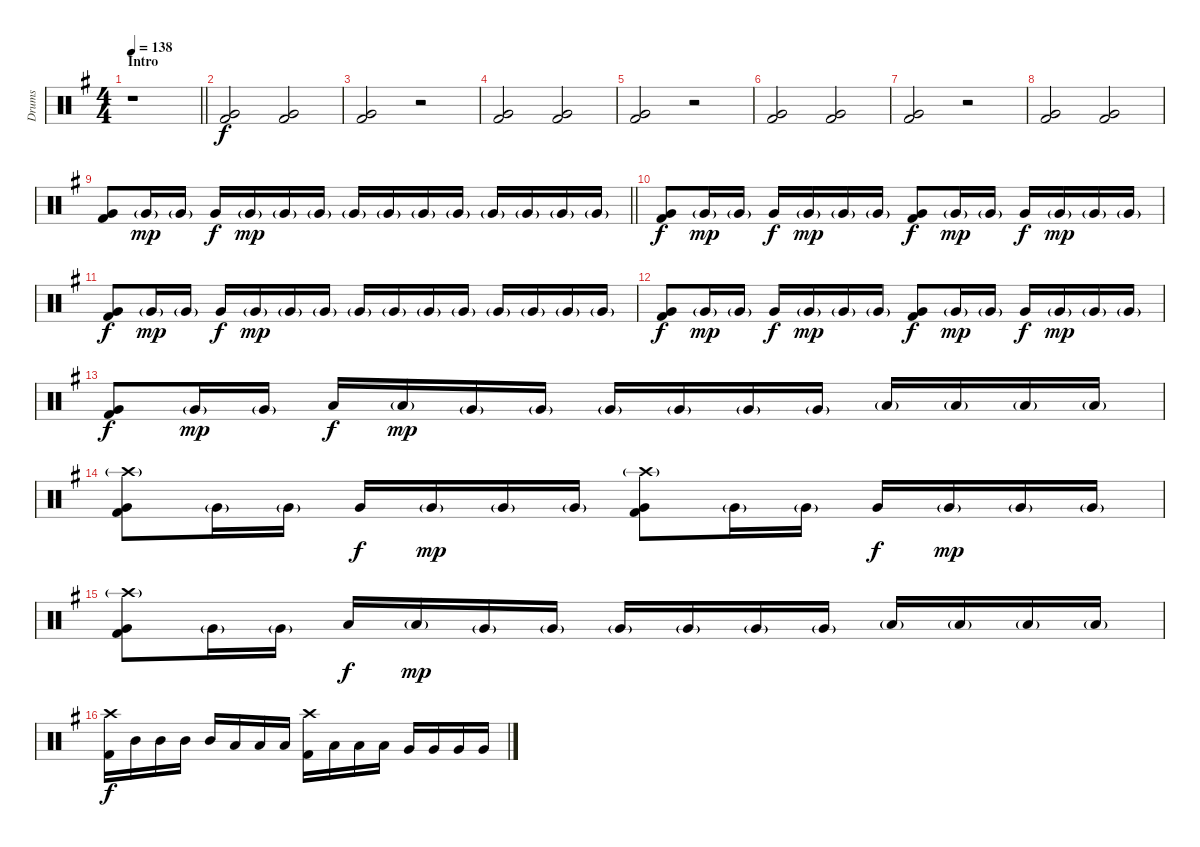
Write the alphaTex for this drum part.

\track ("Drums" "Drums") {instrument percussion}
\staff {score}
\articulation defaults
\ts (4 4)
\section ("" "Intro")
\tempo 138
\clef neutral
\barLineRight lightlight
\ks g
r.1{dy f} |
\section ("" "")
\ks eminor
("Very Low Tom (hit)" "Kick (hit) 2").2 ("Very Low Tom (hit)" "Kick (hit) 2").2 |
("Very Low Tom (hit)" "Kick (hit) 2").2 r.2 |
("Very Low Tom (hit)" "Kick (hit) 2").2 ("Very Low Tom (hit)" "Kick (hit) 2").2 |
("Very Low Tom (hit)" "Kick (hit) 2").2 r.2 |
("Very Low Tom (hit)" "Kick (hit) 2").2 ("Very Low Tom (hit)" "Kick (hit) 2").2 |
("Very Low Tom (hit)" "Kick (hit) 2").2 r.2 |
("Very Low Tom (hit)" "Kick (hit) 2").2 ("Very Low Tom (hit)" "Kick (hit) 2").2 |
\barLineRight lightlight
("Very Low Tom (hit)" "Kick (hit) 2").8 "Very Low Tom (hit)"{g}.16{dy mp} "Very Low Tom (hit)"{g}.16 "Very Low Tom (hit)".16{dy f} "Very Low Tom (hit)"{g}.16{dy mp} "Very Low Tom (hit)"{g}.16 "Very Low Tom (hit)"{g}.16 "Very Low Tom (hit)"{g}.16 "Very Low Tom (hit)"{g}.16 "Very Low Tom (hit)"{g}.16 "Very Low Tom (hit)"{g}.16 "Very Low Tom (hit)"{g}.16 "Very Low Tom (hit)"{g}.16 "Very Low Tom (hit)"{g}.16 "Very Low Tom (hit)"{g}.16 |
\section ("" "")
("Very Low Tom (hit)" "Kick (hit) 2").8{dy f} "Very Low Tom (hit)"{g}.16{dy mp} "Very Low Tom (hit)"{g}.16 "Very Low Tom (hit)".16{dy f} "Very Low Tom (hit)"{g}.16{dy mp} "Very Low Tom (hit)"{g}.16 "Very Low Tom (hit)"{g}.16 ("Very Low Tom (hit)" "Kick (hit) 2").8{dy f} "Very Low Tom (hit)"{g}.16{dy mp} "Very Low Tom (hit)"{g}.16 "Very Low Tom (hit)".16{dy f} "Very Low Tom (hit)"{g}.16{dy mp} "Very Low Tom (hit)"{g}.16 "Very Low Tom (hit)"{g}.16 |
("Very Low Tom (hit)" "Kick (hit) 2").8{dy f} "Very Low Tom (hit)"{g}.16{dy mp} "Very Low Tom (hit)"{g}.16 "Very Low Tom (hit)".16{dy f} "Very Low Tom (hit)"{g}.16{dy mp} "Very Low Tom (hit)"{g}.16 "Very Low Tom (hit)"{g}.16 "Very Low Tom (hit)"{g}.16 "Very Low Tom (hit)"{g}.16 "Very Low Tom (hit)"{g}.16 "Very Low Tom (hit)"{g}.16 "Very Low Tom (hit)"{g}.16 "Very Low Tom (hit)"{g}.16 "Very Low Tom (hit)"{g}.16 "Very Low Tom (hit)"{g}.16 |
("Very Low Tom (hit)" "Kick (hit) 2").8{dy f} "Very Low Tom (hit)"{g}.16{dy mp} "Very Low Tom (hit)"{g}.16 "Very Low Tom (hit)".16{dy f} "Very Low Tom (hit)"{g}.16{dy mp} "Very Low Tom (hit)"{g}.16 "Very Low Tom (hit)"{g}.16 ("Very Low Tom (hit)" "Kick (hit) 2").8{dy f} "Very Low Tom (hit)"{g}.16{dy mp} "Very Low Tom (hit)"{g}.16 "Very Low Tom (hit)".16{dy f} "Very Low Tom (hit)"{g}.16{dy mp} "Very Low Tom (hit)"{g}.16 "Very Low Tom (hit)"{g}.16 |
("Very Low Tom (hit)" "Kick (hit) 2").8{dy f} "Very Low Tom (hit)"{g}.16{dy mp} "Very Low Tom (hit)"{g}.16 "Low Tom (hit)".16{dy f} "Low Tom (hit)"{g}.16{dy mp} "Very Low Tom (hit)"{g}.16 "Very Low Tom (hit)"{g}.16 "Very Low Tom (hit)"{g}.16 "Very Low Tom (hit)"{g}.16 "Very Low Tom (hit)"{g}.16 "Very Low Tom (hit)"{g}.16 "Low Floor Tom (hit)"{g}.16 "Low Floor Tom (hit)"{g}.16 "Low Floor Tom (hit)"{g}.16 "Low Floor Tom (hit)"{g}.16 |
("Crash high (hit)"{g} "Very Low Tom (hit)" "Kick (hit) 2").8 "Very Low Tom (hit)"{g}.16 "Very Low Tom (hit)"{g}.16 "Very Low Tom (hit)".16{dy f} "Very Low Tom (hit)"{g}.16{dy mp} "Very Low Tom (hit)"{g}.16 "Very Low Tom (hit)"{g}.16 ("Crash high (hit)"{g} "Very Low Tom (hit)" "Kick (hit) 2").8 "Very Low Tom (hit)"{g}.16 "Very Low Tom (hit)"{g}.16 "Very Low Tom (hit)".16{dy f} "Very Low Tom (hit)"{g}.16{dy mp} "Very Low Tom (hit)"{g}.16 "Very Low Tom (hit)"{g}.16 |
("Crash high (hit)"{g} "Very Low Tom (hit)" "Kick (hit) 2").8 "Very Low Tom (hit)"{g}.16 "Very Low Tom (hit)"{g}.16 "Low Tom (hit)".16{dy f} "Low Tom (hit)"{g}.16{dy mp} "Very Low Tom (hit)"{g}.16 "Very Low Tom (hit)"{g}.16 "Very Low Tom (hit)"{g}.16 "Very Low Tom (hit)"{g}.16 "Very Low Tom (hit)"{g}.16 "Very Low Tom (hit)"{g}.16 "Low Floor Tom (hit)"{g}.16 "Low Floor Tom (hit)"{g}.16 "Low Floor Tom (hit)"{g}.16 "Low Floor Tom (hit)"{g}.16 |
("Crash high (hit)" "Kick (hit) 2").16{dy f} "Mid Tom (hit)".16 "Mid Tom (hit)".16 "Mid Tom (hit)".16 "Mid Tom (hit)".16 "Low Tom (hit)".16 "Low Tom (hit)".16 "Low Tom (hit)".16 ("Crash high (hit)" "Kick (hit) 2").16 "Low Tom (hit)".16 "Low Tom (hit)".16 "Low Tom (hit)".16 "Very Low Tom (hit)".16 "Very Low Tom (hit)".16 "Very Low Tom (hit)".16 "Very Low Tom (hit)".16
